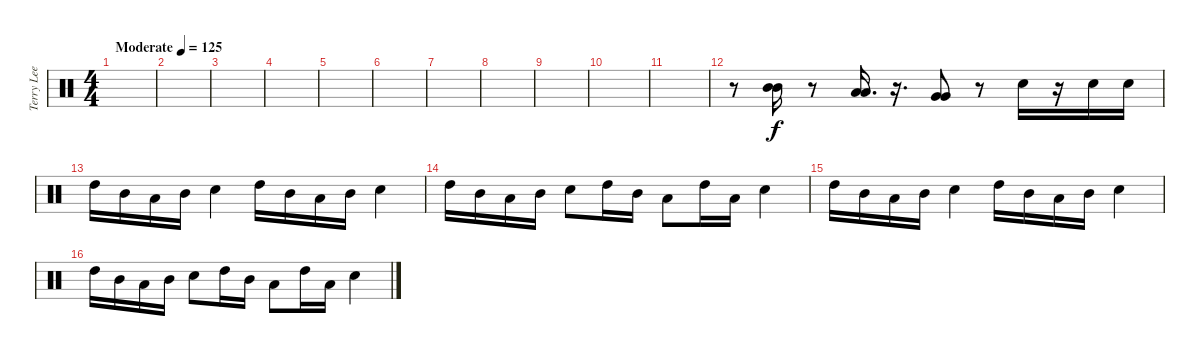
\track ("Terry Lee Miall" "Terry Lee ") {instrument percussion}
\staff {score}
\articulation defaults
\ts (4 4)
\tempo (125 "Moderate")
\clef neutral
\ks c
|
|
|
|
|
|
|
|
|
|
|
r.8 ("Mid Tom (hit)" "Mid Tom (hit)").16 r.8 ("Low Tom (hit)" "Low Tom (hit)").16{d} r.16{d} ("Very Low Tom (hit)" "Very Low Tom (hit)").8 r.8 "Electric Snare (hit)".16 r.16 "Electric Snare (hit)".16 "Electric Snare (hit)".16 |
"High Tom (hit)".16 "Mid Tom (hit)".16 "Low Tom (hit)".16 "Mid Tom (hit)".16 "Electric Snare (hit)".4 "High Tom (hit)".16 "Mid Tom (hit)".16 "Low Tom (hit)".16 "Mid Tom (hit)".16 "Electric Snare (hit)".4 |
"High Tom (hit)".16 "Mid Tom (hit)".16 "Low Tom (hit)".16 "Mid Tom (hit)".16 "Electric Snare (hit)".8 "High Tom (hit)".16 "Mid Tom (hit)".16 "Low Tom (hit)".8 "High Tom (hit)".16 "Low Tom (hit)".16 "Electric Snare (hit)".4 |
"High Tom (hit)".16 "Mid Tom (hit)".16 "Low Tom (hit)".16 "Mid Tom (hit)".16 "Electric Snare (hit)".4 "High Tom (hit)".16 "Mid Tom (hit)".16 "Low Tom (hit)".16 "Mid Tom (hit)".16 "Electric Snare (hit)".4 |
"High Tom (hit)".16 "Mid Tom (hit)".16 "Low Tom (hit)".16 "Mid Tom (hit)".16 "Electric Snare (hit)".8 "High Tom (hit)".16 "Mid Tom (hit)".16 "Low Tom (hit)".8 "High Tom (hit)".16 "Low Tom (hit)".16 "Electric Snare (hit)".4
